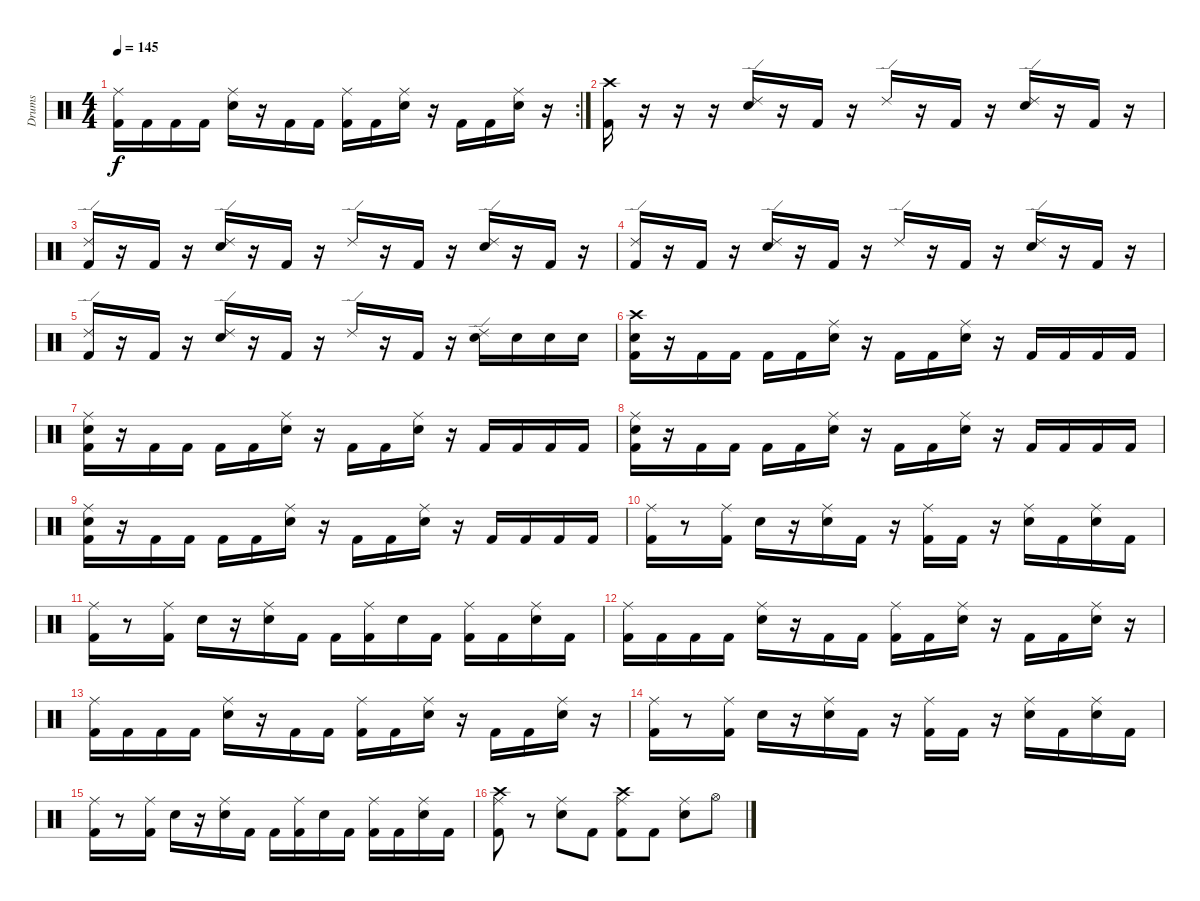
\track ("Drums" "Drums") {instrument percussion}
\staff {score}
\articulation defaults
\rc 2
\ts (4 4)
\tempo 145
\clef neutral
\ks c
("Ride (middle)" "Kick (hit) 2").16{dy f} "Kick (hit) 2".16 "Kick (hit) 2".16 "Kick (hit) 2".16 ("Ride (middle)" "Electric Snare (hit)").16 r.16 "Kick (hit) 2".16 "Kick (hit) 2".16 ("Ride (middle)" "Kick (hit) 2").16 "Kick (hit) 2".16 ("Ride (middle)" "Electric Snare (hit)").16 r.16 "Kick (hit) 2".16 "Kick (hit) 2".16 ("Ride (middle)" "Electric Snare (hit)").16 r.16 |
("Crash high (hit)" "Kick (hit) 2").16 r.16 r.16 r.16 ("Ride (edge) 2" "Electric Snare (hit)").16 r.16 "Kick (hit) 2".16 r.16 "Ride (edge) 2".16 r.16 "Kick (hit) 2".16 r.16 ("Ride (edge) 2" "Electric Snare (hit)").16 r.16 "Kick (hit) 2".16 r.16 |
("Ride (edge) 2" "Kick (hit) 2").16 r.16 "Kick (hit) 2".16 r.16 ("Ride (edge) 2" "Electric Snare (hit)").16 r.16 "Kick (hit) 2".16 r.16 "Ride (edge) 2".16 r.16 "Kick (hit) 2".16 r.16 ("Ride (edge) 2" "Electric Snare (hit)").16 r.16 "Kick (hit) 2".16 r.16 |
("Ride (edge) 2" "Kick (hit) 2").16 r.16 "Kick (hit) 2".16 r.16 ("Ride (edge) 2" "Electric Snare (hit)").16 r.16 "Kick (hit) 2".16 r.16 "Ride (edge) 2".16 r.16 "Kick (hit) 2".16 r.16 ("Ride (edge) 2" "Electric Snare (hit)").16 r.16 "Kick (hit) 2".16 r.16 |
("Ride (edge) 2" "Kick (hit) 2").16 r.16 "Kick (hit) 2".16 r.16 ("Ride (edge) 2" "Electric Snare (hit)").16 r.16 "Kick (hit) 2".16 r.16 "Ride (edge) 2".16 r.16 "Kick (hit) 2".16 r.16 ("Ride (edge) 2" "Electric Snare (hit)").16 "Electric Snare (hit)".16 "Electric Snare (hit)".16 "Electric Snare (hit)".16 |
("Crash high (hit)" "Electric Snare (hit)" "Kick (hit) 2").16 r.16 "Kick (hit) 2".16 "Kick (hit) 2".16 "Kick (hit) 2".16 "Kick (hit) 2".16 ("Ride (middle)" "Electric Snare (hit)").16 r.16 "Kick (hit) 2".16 "Kick (hit) 2".16 ("Ride (middle)" "Electric Snare (hit)").16 r.16 "Kick (hit) 2".16 "Kick (hit) 2".16 "Kick (hit) 2".16 "Kick (hit) 2".16 |
("Ride (middle)" "Electric Snare (hit)" "Kick (hit) 2").16 r.16 "Kick (hit) 2".16 "Kick (hit) 2".16 "Kick (hit) 2".16 "Kick (hit) 2".16 ("Ride (middle)" "Electric Snare (hit)").16 r.16 "Kick (hit) 2".16 "Kick (hit) 2".16 ("Ride (middle)" "Electric Snare (hit)").16 r.16 "Kick (hit) 2".16 "Kick (hit) 2".16 "Kick (hit) 2".16 "Kick (hit) 2".16 |
("Ride (middle)" "Electric Snare (hit)" "Kick (hit) 2").16 r.16 "Kick (hit) 2".16 "Kick (hit) 2".16 "Kick (hit) 2".16 "Kick (hit) 2".16 ("Ride (middle)" "Electric Snare (hit)").16 r.16 "Kick (hit) 2".16 "Kick (hit) 2".16 ("Ride (middle)" "Electric Snare (hit)").16 r.16 "Kick (hit) 2".16 "Kick (hit) 2".16 "Kick (hit) 2".16 "Kick (hit) 2".16 |
("Ride (middle)" "Electric Snare (hit)" "Kick (hit) 2").16 r.16 "Kick (hit) 2".16 "Kick (hit) 2".16 "Kick (hit) 2".16 "Kick (hit) 2".16 ("Ride (middle)" "Electric Snare (hit)").16 r.16 "Kick (hit) 2".16 "Kick (hit) 2".16 ("Ride (middle)" "Electric Snare (hit)").16 r.16 "Kick (hit) 2".16 "Kick (hit) 2".16 "Kick (hit) 2".16 "Kick (hit) 2".16 |
("Ride (middle)" "Kick (hit) 2").16 r.8 ("Ride (middle)" "Kick (hit) 2").16 "Electric Snare (hit)".16 r.16 ("Ride (middle)" "Electric Snare (hit)").16 "Kick (hit) 2".16 r.16 ("Ride (middle)" "Kick (hit) 2").16 "Kick (hit) 2".16 r.16 ("Ride (middle)" "Electric Snare (hit)").16 "Kick (hit) 2".16 ("Ride (middle)" "Electric Snare (hit)").16 "Kick (hit) 2".16 |
("Ride (middle)" "Kick (hit) 2").16 r.8 ("Ride (middle)" "Kick (hit) 2").16 "Electric Snare (hit)".16 r.16 ("Ride (middle)" "Electric Snare (hit)").16 "Kick (hit) 2".16 "Kick (hit) 2".16 ("Ride (middle)" "Kick (hit) 2").16 "Electric Snare (hit)".16 "Kick (hit) 2".16 ("Ride (middle)" "Kick (hit) 2").16 "Kick (hit) 2".16 ("Ride (middle)" "Electric Snare (hit)").16 "Kick (hit) 2".16 |
("Ride (middle)" "Kick (hit) 2").16 "Kick (hit) 2".16 "Kick (hit) 2".16 "Kick (hit) 2".16 ("Ride (middle)" "Electric Snare (hit)").16 r.16 "Kick (hit) 2".16 "Kick (hit) 2".16 ("Ride (middle)" "Kick (hit) 2").16 "Kick (hit) 2".16 ("Ride (middle)" "Electric Snare (hit)").16 r.16 "Kick (hit) 2".16 "Kick (hit) 2".16 ("Ride (middle)" "Electric Snare (hit)").16 r.16 |
("Ride (middle)" "Kick (hit) 2").16 "Kick (hit) 2".16 "Kick (hit) 2".16 "Kick (hit) 2".16 ("Ride (middle)" "Electric Snare (hit)").16 r.16 "Kick (hit) 2".16 "Kick (hit) 2".16 ("Ride (middle)" "Kick (hit) 2").16 "Kick (hit) 2".16 ("Ride (middle)" "Electric Snare (hit)").16 r.16 "Kick (hit) 2".16 "Kick (hit) 2".16 ("Ride (middle)" "Electric Snare (hit)").16 r.16 |
("Ride (middle)" "Kick (hit) 2").16 r.8 ("Ride (middle)" "Kick (hit) 2").16 "Electric Snare (hit)".16 r.16 ("Ride (middle)" "Electric Snare (hit)").16 "Kick (hit) 2".16 r.16 ("Ride (middle)" "Kick (hit) 2").16 "Kick (hit) 2".16 r.16 ("Ride (middle)" "Electric Snare (hit)").16 "Kick (hit) 2".16 ("Ride (middle)" "Electric Snare (hit)").16 "Kick (hit) 2".16 |
("Ride (middle)" "Kick (hit) 2").16 r.8 ("Ride (middle)" "Kick (hit) 2").16 "Electric Snare (hit)".16 r.16 ("Ride (middle)" "Electric Snare (hit)").16 "Kick (hit) 2".16 "Kick (hit) 2".16 ("Ride (middle)" "Kick (hit) 2").16 "Electric Snare (hit)".16 "Kick (hit) 2".16 ("Ride (middle)" "Kick (hit) 2").16 "Kick (hit) 2".16 ("Ride (middle)" "Electric Snare (hit)").16 "Kick (hit) 2".16 |
("Ride (middle)" "Kick (hit) 2" "Crash high (hit)").8 r.8 ("Ride (middle)" "Electric Snare (hit)").8 "Kick (hit) 2".8 ("Ride (middle)" "Kick (hit) 2" "Crash high (hit)").8 "Kick (hit) 2".8 ("Ride (middle)" "Electric Snare (hit)").8 "Hi-Hat (open)".8
